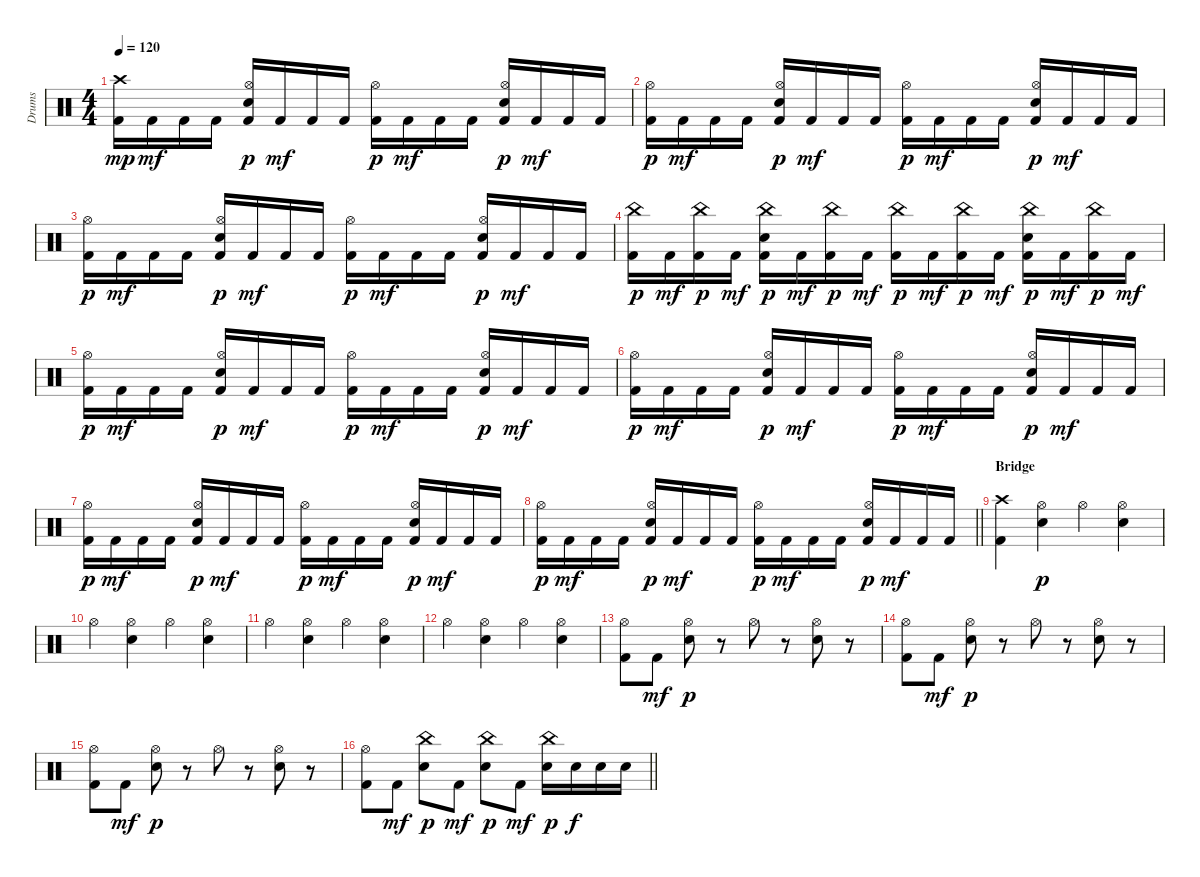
\track ("Drums" "Drums") {instrument percussion}
\staff {score}
\articulation defaults
\ts (4 4)
\tempo 120
\clef neutral
\ks c
("Kick (hit) 2" "Crash high (hit)").16{dy mp} "Kick (hit) 2".16{dy mf} "Kick (hit) 2".16 "Kick (hit) 2".16 ("Kick (hit) 2" "Hi-Hat (open)" "Snare (hit) 2").16{dy p} "Kick (hit) 2".16{dy mf} "Kick (hit) 2".16 "Kick (hit) 2".16 ("Kick (hit) 2" "Hi-Hat (open)").16{dy p} "Kick (hit) 2".16{dy mf} "Kick (hit) 2".16 "Kick (hit) 2".16 ("Kick (hit) 2" "Hi-Hat (open)" "Snare (hit) 2").16{dy p} "Kick (hit) 2".16{dy mf} "Kick (hit) 2".16 "Kick (hit) 2".16 |
("Kick (hit) 2" "Hi-Hat (open)").16{dy p} "Kick (hit) 2".16{dy mf} "Kick (hit) 2".16 "Kick (hit) 2".16 ("Kick (hit) 2" "Hi-Hat (open)" "Snare (hit) 2").16{dy p} "Kick (hit) 2".16{dy mf} "Kick (hit) 2".16 "Kick (hit) 2".16 ("Kick (hit) 2" "Hi-Hat (open)").16{dy p} "Kick (hit) 2".16{dy mf} "Kick (hit) 2".16 "Kick (hit) 2".16 ("Kick (hit) 2" "Hi-Hat (open)" "Snare (hit) 2").16{dy p} "Kick (hit) 2".16{dy mf} "Kick (hit) 2".16 "Kick (hit) 2".16 |
("Kick (hit) 2" "Hi-Hat (open)").16{dy p} "Kick (hit) 2".16{dy mf} "Kick (hit) 2".16 "Kick (hit) 2".16 ("Kick (hit) 2" "Hi-Hat (open)" "Snare (hit) 2").16{dy p} "Kick (hit) 2".16{dy mf} "Kick (hit) 2".16 "Kick (hit) 2".16 ("Kick (hit) 2" "Hi-Hat (open)").16{dy p} "Kick (hit) 2".16{dy mf} "Kick (hit) 2".16 "Kick (hit) 2".16 ("Kick (hit) 2" "Hi-Hat (open)" "Snare (hit) 2").16{dy p} "Kick (hit) 2".16{dy mf} "Kick (hit) 2".16 "Kick (hit) 2".16 |
("Kick (hit) 2" "China (hit)").16{dy p} "Kick (hit) 2".16{dy mf} ("Kick (hit) 2" "China (hit)").16{dy p} "Kick (hit) 2".16{dy mf} ("Kick (hit) 2" "China (hit)" "Snare (hit) 2").16{dy p} "Kick (hit) 2".16{dy mf} ("Kick (hit) 2" "China (hit)").16{dy p} "Kick (hit) 2".16{dy mf} ("Kick (hit) 2" "China (hit)").16{dy p} "Kick (hit) 2".16{dy mf} ("Kick (hit) 2" "China (hit)").16{dy p} "Kick (hit) 2".16{dy mf} ("Kick (hit) 2" "China (hit)" "Snare (hit) 2").16{dy p} "Kick (hit) 2".16{dy mf} ("Kick (hit) 2" "China (hit)").16{dy p} "Kick (hit) 2".16{dy mf} |
("Kick (hit) 2" "Hi-Hat (open)").16{dy p} "Kick (hit) 2".16{dy mf} "Kick (hit) 2".16 "Kick (hit) 2".16 ("Kick (hit) 2" "Hi-Hat (open)" "Snare (hit) 2").16{dy p} "Kick (hit) 2".16{dy mf} "Kick (hit) 2".16 "Kick (hit) 2".16 ("Kick (hit) 2" "Hi-Hat (open)").16{dy p} "Kick (hit) 2".16{dy mf} "Kick (hit) 2".16 "Kick (hit) 2".16 ("Kick (hit) 2" "Hi-Hat (open)" "Snare (hit) 2").16{dy p} "Kick (hit) 2".16{dy mf} "Kick (hit) 2".16 "Kick (hit) 2".16 |
("Kick (hit) 2" "Hi-Hat (open)").16{dy p} "Kick (hit) 2".16{dy mf} "Kick (hit) 2".16 "Kick (hit) 2".16 ("Kick (hit) 2" "Hi-Hat (open)" "Snare (hit) 2").16{dy p} "Kick (hit) 2".16{dy mf} "Kick (hit) 2".16 "Kick (hit) 2".16 ("Kick (hit) 2" "Hi-Hat (open)").16{dy p} "Kick (hit) 2".16{dy mf} "Kick (hit) 2".16 "Kick (hit) 2".16 ("Kick (hit) 2" "Hi-Hat (open)" "Snare (hit) 2").16{dy p} "Kick (hit) 2".16{dy mf} "Kick (hit) 2".16 "Kick (hit) 2".16 |
("Kick (hit) 2" "Hi-Hat (open)").16{dy p} "Kick (hit) 2".16{dy mf} "Kick (hit) 2".16 "Kick (hit) 2".16 ("Kick (hit) 2" "Hi-Hat (open)" "Snare (hit) 2").16{dy p} "Kick (hit) 2".16{dy mf} "Kick (hit) 2".16 "Kick (hit) 2".16 ("Kick (hit) 2" "Hi-Hat (open)").16{dy p} "Kick (hit) 2".16{dy mf} "Kick (hit) 2".16 "Kick (hit) 2".16 ("Kick (hit) 2" "Hi-Hat (open)" "Snare (hit) 2").16{dy p} "Kick (hit) 2".16{dy mf} "Kick (hit) 2".16 "Kick (hit) 2".16 |
\barLineRight lightlight
("Kick (hit) 2" "Hi-Hat (open)").16{dy p} "Kick (hit) 2".16{dy mf} "Kick (hit) 2".16 "Kick (hit) 2".16 ("Kick (hit) 2" "Hi-Hat (open)" "Snare (hit) 2").16{dy p} "Kick (hit) 2".16{dy mf} "Kick (hit) 2".16 "Kick (hit) 2".16 ("Kick (hit) 2" "Hi-Hat (open)").16{dy p} "Kick (hit) 2".16{dy mf} "Kick (hit) 2".16 "Kick (hit) 2".16 ("Kick (hit) 2" "Hi-Hat (open)" "Snare (hit) 2").16{dy p} "Kick (hit) 2".16{dy mf} "Kick (hit) 2".16 "Kick (hit) 2".16 |
\section ("" "Bridge")
("Kick (hit) 2" "Crash high (hit)").4 ("Hi-Hat (open)" "Snare (hit) 2").4{dy p} "Hi-Hat (open)".4 ("Hi-Hat (open)" "Snare (hit) 2").4 |
"Hi-Hat (open)".4 ("Hi-Hat (open)" "Snare (hit) 2").4 "Hi-Hat (open)".4 ("Hi-Hat (open)" "Snare (hit) 2").4 |
"Hi-Hat (open)".4 ("Hi-Hat (open)" "Snare (hit) 2").4 "Hi-Hat (open)".4 ("Hi-Hat (open)" "Snare (hit) 2").4 |
"Hi-Hat (open)".4 ("Hi-Hat (open)" "Snare (hit) 2").4 "Hi-Hat (open)".4 ("Hi-Hat (open)" "Snare (hit) 2").4 |
("Kick (hit) 2" "Hi-Hat (open)").8 "Kick (hit) 2".8{dy mf} ("Hi-Hat (open)" "Snare (hit) 2").8{dy p} r.8 "Hi-Hat (open)".8 r.8 ("Hi-Hat (open)" "Snare (hit) 2").8 r.8 |
("Kick (hit) 2" "Hi-Hat (open)").8 "Kick (hit) 2".8{dy mf} ("Hi-Hat (open)" "Snare (hit) 2").8{dy p} r.8 "Hi-Hat (open)".8 r.8 ("Hi-Hat (open)" "Snare (hit) 2").8 r.8 |
("Kick (hit) 2" "Hi-Hat (open)").8 "Kick (hit) 2".8{dy mf} ("Hi-Hat (open)" "Snare (hit) 2").8{dy p} r.8 "Hi-Hat (open)".8 r.8 ("Hi-Hat (open)" "Snare (hit) 2").8 r.8 |
\barLineRight lightlight
("Kick (hit) 2" "Hi-Hat (open)").8 "Kick (hit) 2".8{dy mf} ("China (hit)" "Snare (hit) 2").8{dy p} "Kick (hit) 2".8{dy mf} ("China (hit)" "Snare (hit) 2").8{dy p} "Kick (hit) 2".8{dy mf} ("China (hit)" "Snare (hit) 2").16{dy p} "Snare (hit) 2".16{dy f} "Snare (hit) 2".16 "Snare (hit) 2".16
